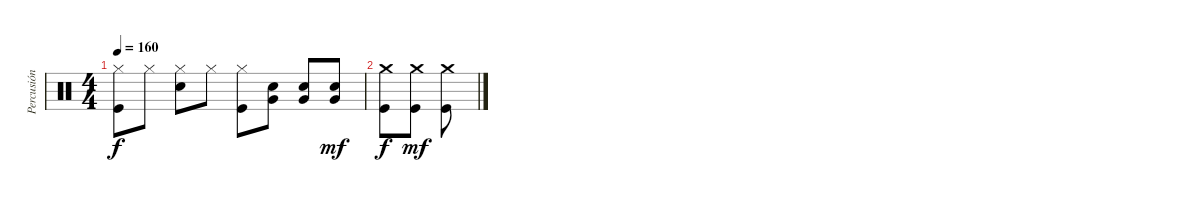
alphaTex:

\track ("Percusión" "Percusión") {instrument percussion}
\staff {score}
\articulation defaults
\ts (4 4)
\tempo 160
\clef neutral
\ks c
("Hi-Hat (closed)" "Kick (hit)").8{dy f} "Hi-Hat (closed)".8 ("Hi-Hat (closed)" "Electric Snare (hit)").8 "Hi-Hat (closed)".8 ("Hi-Hat (closed)" "Kick (hit)").8 ("Electric Snare (hit)" "Very Low Tom (hit)").8 ("Electric Snare (hit)" "Very Low Tom (hit)").8 ("Electric Snare (hit)" "Very Low Tom (hit)").8{dy mf} |
("Crash medium (hit)" "Kick (hit)").8{dy f} ("Crash medium (hit)" "Kick (hit)").8{dy mf} ("Crash medium (hit)" "Kick (hit)").8
